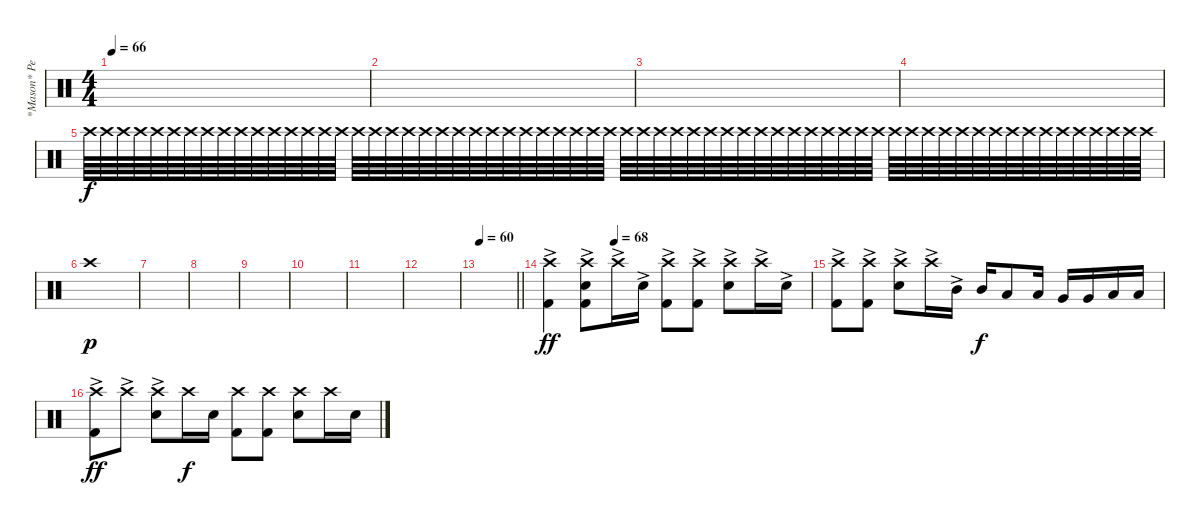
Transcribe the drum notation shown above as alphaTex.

\track ("*Mason* Percussion" "*Mason* Pe") {instrument percussion}
\staff {score}
\articulation defaults
\ts (4 4)
\tempo 66
\clef neutral
\ks c
|
|
|
|
"Crash high (hit)".64{volume 16} "Crash high (hit)".64 "Crash high (hit)".64 "Crash high (hit)".64 "Crash high (hit)".64 "Crash high (hit)".64 "Crash high (hit)".64 "Crash high (hit)".64 "Crash high (hit)".64 "Crash high (hit)".64 "Crash high (hit)".64 "Crash high (hit)".64 "Crash high (hit)".64 "Crash high (hit)".64 "Crash high (hit)".64 "Crash high (hit)".64 "Crash high (hit)".64 "Crash high (hit)".64 "Crash high (hit)".64 "Crash high (hit)".64 "Crash high (hit)".64 "Crash high (hit)".64 "Crash high (hit)".64 "Crash high (hit)".64 "Crash high (hit)".64 "Crash high (hit)".64 "Crash high (hit)".64 "Crash high (hit)".64 "Crash high (hit)".64 "Crash high (hit)".64 "Crash high (hit)".64 "Crash high (hit)".64 "Crash high (hit)".64 "Crash high (hit)".64 "Crash high (hit)".64 "Crash high (hit)".64 "Crash high (hit)".64 "Crash high (hit)".64 "Crash high (hit)".64 "Crash high (hit)".64 "Crash high (hit)".64 "Crash high (hit)".64 "Crash high (hit)".64 "Crash high (hit)".64 "Crash high (hit)".64 "Crash high (hit)".64 "Crash high (hit)".64 "Crash high (hit)".64 "Crash high (hit)".64 "Crash high (hit)".64 "Crash high (hit)".64 "Crash high (hit)".64 "Crash high (hit)".64 "Crash high (hit)".64 "Crash high (hit)".64 "Crash high (hit)".64 "Crash high (hit)".64 "Crash high (hit)".64 "Crash high (hit)".64 "Crash high (hit)".64 "Crash high (hit)".64 "Crash high (hit)".64 "Crash high (hit)".64 "Crash high (hit)".64 |
"Crash high (hit)".1{dy p} |
|
|
|
|
|
|
\tempo 60
\barLineRight lightlight
|
\tempo (68 0.25)
("Crash high (hit)"{ac} "Kick (hit) 2"{ac}).4{dy ff} ("Crash high (hit)"{ac} "Snare (hit) 2"{ac} "Kick (hit) 2"{ac}).8 "Crash high (hit)"{ac}.16 "Snare (hit) 2"{ac}.16 ("Crash high (hit)"{ac} "Kick (hit) 2"{ac}).8 ("Crash high (hit)"{ac} "Kick (hit) 2"{ac}).8 ("Crash high (hit)"{ac} "Snare (hit) 2"{ac}).8 "Crash high (hit)"{ac}.16 "Snare (hit) 2"{ac}.16 |
("Crash high (hit)"{ac} "Kick (hit) 2"{ac}).8 ("Crash high (hit)"{ac} "Kick (hit) 2"{ac}).8 ("Crash high (hit)"{ac} "Snare (hit) 2"{ac}).8 "Crash high (hit)"{ac}.16 "Mid Tom (hit)"{ac}.16 "Mid Tom (hit)".16{dy f} "Low Tom (hit)".8 "Low Tom (hit)".16 "Very Low Tom (hit)".16 "Very Low Tom (hit)".16 "Low Floor Tom (hit)".16 "Low Floor Tom (hit)".16 |
("Crash high (hit)"{ac} "Kick (hit) 2"{ac}).8{dy ff} "Crash high (hit)"{ac}.8 ("Crash high (hit)"{ac} "Snare (hit) 2").8 "Crash high (hit)".16{dy f} "Snare (hit) 2".16 ("Crash high (hit)" "Kick (hit) 2").8 ("Crash high (hit)" "Kick (hit) 2").8 ("Crash high (hit)" "Snare (hit) 2").8 "Crash high (hit)".16 "Snare (hit) 2".16
